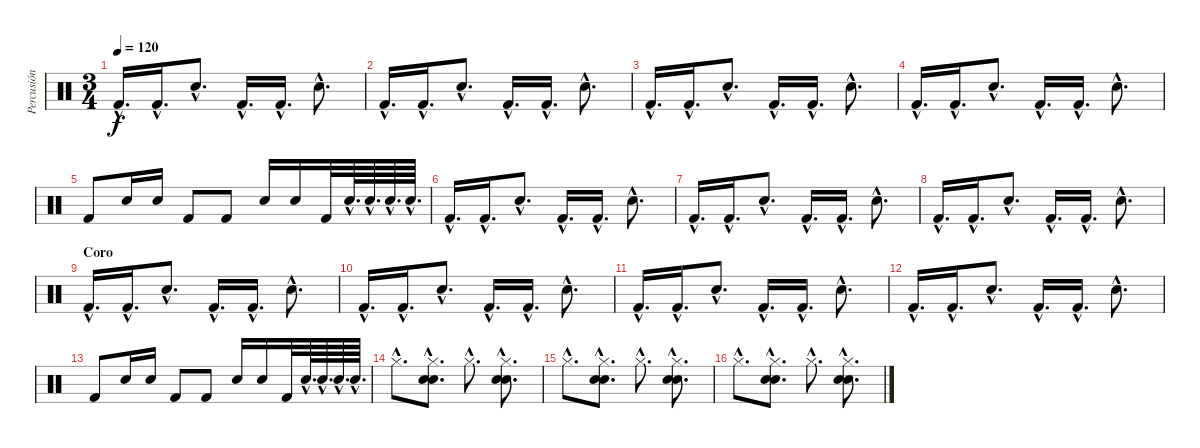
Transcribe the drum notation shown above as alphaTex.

\track ("Percusión" "Percusión") {instrument percussion}
\staff {score}
\articulation defaults
\ts (3 4)
\tempo 120
\clef neutral
\ks c "Kick (hit) 2"{hac}.16{d dy f} "Kick (hit) 2"{hac}.16{d} "Electric Snare (hit)"{hac}.8{d} "Kick (hit) 2"{hac}.16{d} "Kick (hit) 2"{hac}.16{d} "Electric Snare (hit)"{hac}.8{d}
|
"Kick (hit) 2"{hac}.16{d} "Kick (hit) 2"{hac}.16{d} "Electric Snare (hit)"{hac}.8{d} "Kick (hit) 2"{hac}.16{d} "Kick (hit) 2"{hac}.16{d} "Electric Snare (hit)"{hac}.8{d} |
"Kick (hit) 2"{hac}.16{d} "Kick (hit) 2"{hac}.16{d} "Electric Snare (hit)"{hac}.8{d} "Kick (hit) 2"{hac}.16{d} "Kick (hit) 2"{hac}.16{d} "Electric Snare (hit)"{hac}.8{d} |
"Kick (hit) 2"{hac}.16{d} "Kick (hit) 2"{hac}.16{d} "Electric Snare (hit)"{hac}.8{d} "Kick (hit) 2"{hac}.16{d} "Kick (hit) 2"{hac}.16{d} "Electric Snare (hit)"{hac}.8{d} |
"Kick (hit) 2".8 "Electric Snare (hit)".16 "Electric Snare (hit)".16 "Kick (hit) 2".8 "Kick (hit) 2".8 "Electric Snare (hit)".16 "Electric Snare (hit)".16 "Kick (hit) 2".32 "Electric Snare (hit)"{hac}.64{d} "Electric Snare (hit)"{hac}.64{d} "Electric Snare (hit)"{hac}.64{d} "Electric Snare (hit)"{hac}.64{d} |
"Kick (hit) 2"{hac}.16{d} "Kick (hit) 2"{hac}.16{d} "Electric Snare (hit)"{hac}.8{d} "Kick (hit) 2"{hac}.16{d} "Kick (hit) 2"{hac}.16{d} "Electric Snare (hit)"{hac}.8{d} |
"Kick (hit) 2"{hac}.16{d} "Kick (hit) 2"{hac}.16{d} "Electric Snare (hit)"{hac}.8{d} "Kick (hit) 2"{hac}.16{d} "Kick (hit) 2"{hac}.16{d} "Electric Snare (hit)"{hac}.8{d} |
"Kick (hit) 2"{hac}.16{d} "Kick (hit) 2"{hac}.16{d} "Electric Snare (hit)"{hac}.8{d} "Kick (hit) 2"{hac}.16{d} "Kick (hit) 2"{hac}.16{d} "Electric Snare (hit)"{hac}.8{d} |
\section ("" "Coro")
"Kick (hit) 2"{hac}.16{d} "Kick (hit) 2"{hac}.16{d} "Electric Snare (hit)"{hac}.8{d} "Kick (hit) 2"{hac}.16{d} "Kick (hit) 2"{hac}.16{d} "Electric Snare (hit)"{hac}.8{d} |
"Kick (hit) 2"{hac}.16{d} "Kick (hit) 2"{hac}.16{d} "Electric Snare (hit)"{hac}.8{d} "Kick (hit) 2"{hac}.16{d} "Kick (hit) 2"{hac}.16{d} "Electric Snare (hit)"{hac}.8{d} |
"Kick (hit) 2"{hac}.16{d} "Kick (hit) 2"{hac}.16{d} "Electric Snare (hit)"{hac}.8{d} "Kick (hit) 2"{hac}.16{d} "Kick (hit) 2"{hac}.16{d} "Electric Snare (hit)"{hac}.8{d} |
"Kick (hit) 2"{hac}.16{d} "Kick (hit) 2"{hac}.16{d} "Electric Snare (hit)"{hac}.8{d} "Kick (hit) 2"{hac}.16{d} "Kick (hit) 2"{hac}.16{d} "Electric Snare (hit)"{hac}.8{d} |
"Kick (hit) 2".8 "Electric Snare (hit)".16 "Electric Snare (hit)".16 "Kick (hit) 2".8 "Kick (hit) 2".8 "Electric Snare (hit)".16 "Electric Snare (hit)".16 "Kick (hit) 2".32 "Electric Snare (hit)"{hac}.64{d} "Electric Snare (hit)"{hac}.64{d} "Electric Snare (hit)"{hac}.64{d} "Electric Snare (hit)"{hac}.64{d} |
"Hi-Hat (closed)"{hac}.8{d} ("Electric Snare (hit)"{hac} "Snare (hit) 2"{hac} "Hi-Hat (closed)"{hac}).8{d} "Hi-Hat (closed)"{hac}.8{d} ("Electric Snare (hit)"{hac} "Snare (hit) 2"{hac} "Hi-Hat (closed)"{hac}).8{d} |
"Hi-Hat (closed)"{hac}.8{d} ("Electric Snare (hit)"{hac} "Snare (hit) 2"{hac} "Hi-Hat (closed)"{hac}).8{d} "Hi-Hat (closed)"{hac}.8{d} ("Electric Snare (hit)"{hac} "Snare (hit) 2"{hac} "Hi-Hat (closed)"{hac}).8{d} |
"Hi-Hat (closed)"{hac}.8{d} ("Electric Snare (hit)"{hac} "Snare (hit) 2"{hac} "Hi-Hat (closed)"{hac}).8{d} "Hi-Hat (closed)"{hac}.8{d} ("Electric Snare (hit)"{hac} "Snare (hit) 2"{hac} "Hi-Hat (closed)"{hac}).8{d}
